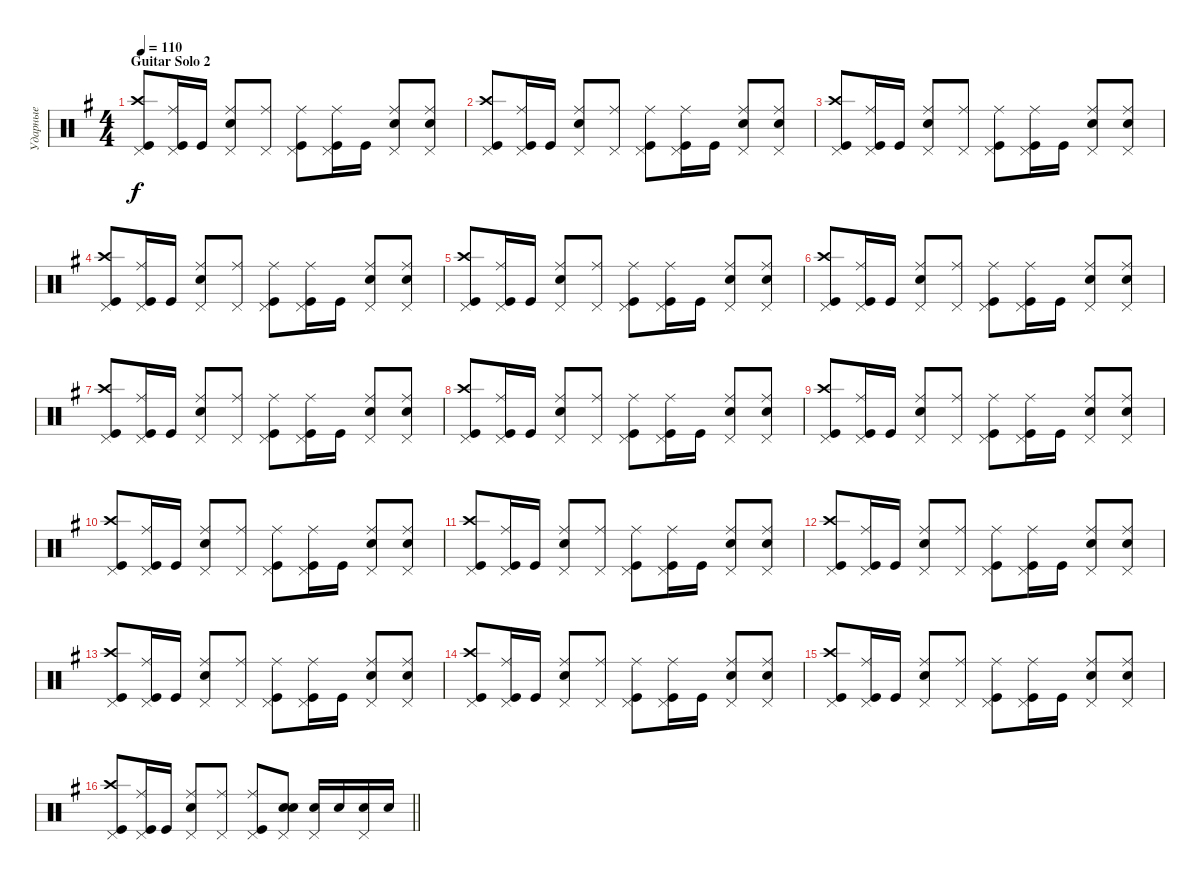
\track ("Ударные" "Ударные") {instrument percussion}
\staff {score}
\articulation defaults
\ts (4 4)
\section ("" "Guitar Solo 2")
\tempo 110
\clef neutral
\ks eminor
("Kick (hit)" "Crash high (hit)" "Pedal Hi-Hat (hit)").8{dy f} ("Kick (hit)" "Ride (middle)" "Pedal Hi-Hat (hit)").16 "Kick (hit)".16 ("Snare (hit) 2" "Ride (middle)" "Pedal Hi-Hat (hit)").8 ("Ride (middle)" "Pedal Hi-Hat (hit)").8 ("Kick (hit)" "Ride (middle)" "Pedal Hi-Hat (hit)").8 ("Kick (hit)" "Ride (middle)" "Pedal Hi-Hat (hit)").16 "Kick (hit)".16 ("Snare (hit) 2" "Ride (middle)" "Pedal Hi-Hat (hit)").8 ("Snare (hit) 2" "Ride (middle)" "Pedal Hi-Hat (hit)").8 |
("Kick (hit)" "Crash high (hit)" "Pedal Hi-Hat (hit)").8 ("Kick (hit)" "Ride (middle)" "Pedal Hi-Hat (hit)").16 "Kick (hit)".16 ("Snare (hit) 2" "Ride (middle)" "Pedal Hi-Hat (hit)").8 ("Ride (middle)" "Pedal Hi-Hat (hit)").8 ("Kick (hit)" "Ride (middle)" "Pedal Hi-Hat (hit)").8 ("Kick (hit)" "Ride (middle)" "Pedal Hi-Hat (hit)").16 "Kick (hit)".16 ("Snare (hit) 2" "Ride (middle)" "Pedal Hi-Hat (hit)").8 ("Snare (hit) 2" "Ride (middle)" "Pedal Hi-Hat (hit)").8 |
("Kick (hit)" "Crash high (hit)" "Pedal Hi-Hat (hit)").8 ("Kick (hit)" "Ride (middle)" "Pedal Hi-Hat (hit)").16 "Kick (hit)".16 ("Snare (hit) 2" "Ride (middle)" "Pedal Hi-Hat (hit)").8 ("Ride (middle)" "Pedal Hi-Hat (hit)").8 ("Kick (hit)" "Ride (middle)" "Pedal Hi-Hat (hit)").8 ("Kick (hit)" "Ride (middle)" "Pedal Hi-Hat (hit)").16 "Kick (hit)".16 ("Snare (hit) 2" "Ride (middle)" "Pedal Hi-Hat (hit)").8 ("Snare (hit) 2" "Ride (middle)" "Pedal Hi-Hat (hit)").8 |
("Kick (hit)" "Crash high (hit)" "Pedal Hi-Hat (hit)").8 ("Kick (hit)" "Ride (middle)" "Pedal Hi-Hat (hit)").16 "Kick (hit)".16 ("Snare (hit) 2" "Ride (middle)" "Pedal Hi-Hat (hit)").8 ("Ride (middle)" "Pedal Hi-Hat (hit)").8 ("Kick (hit)" "Ride (middle)" "Pedal Hi-Hat (hit)").8 ("Kick (hit)" "Ride (middle)" "Pedal Hi-Hat (hit)").16 "Kick (hit)".16 ("Snare (hit) 2" "Ride (middle)" "Pedal Hi-Hat (hit)").8 ("Snare (hit) 2" "Ride (middle)" "Pedal Hi-Hat (hit)").8 |
("Kick (hit)" "Crash high (hit)" "Pedal Hi-Hat (hit)").8 ("Kick (hit)" "Ride (middle)" "Pedal Hi-Hat (hit)").16 "Kick (hit)".16 ("Snare (hit) 2" "Ride (middle)" "Pedal Hi-Hat (hit)").8 ("Ride (middle)" "Pedal Hi-Hat (hit)").8 ("Kick (hit)" "Ride (middle)" "Pedal Hi-Hat (hit)").8 ("Kick (hit)" "Ride (middle)" "Pedal Hi-Hat (hit)").16 "Kick (hit)".16 ("Snare (hit) 2" "Ride (middle)" "Pedal Hi-Hat (hit)").8 ("Snare (hit) 2" "Ride (middle)" "Pedal Hi-Hat (hit)").8 |
("Kick (hit)" "Crash high (hit)" "Pedal Hi-Hat (hit)").8 ("Kick (hit)" "Ride (middle)" "Pedal Hi-Hat (hit)").16 "Kick (hit)".16 ("Snare (hit) 2" "Ride (middle)" "Pedal Hi-Hat (hit)").8 ("Ride (middle)" "Pedal Hi-Hat (hit)").8 ("Kick (hit)" "Ride (middle)" "Pedal Hi-Hat (hit)").8 ("Kick (hit)" "Ride (middle)" "Pedal Hi-Hat (hit)").16 "Kick (hit)".16 ("Snare (hit) 2" "Ride (middle)" "Pedal Hi-Hat (hit)").8 ("Snare (hit) 2" "Ride (middle)" "Pedal Hi-Hat (hit)").8 |
("Kick (hit)" "Crash high (hit)" "Pedal Hi-Hat (hit)").8 ("Kick (hit)" "Ride (middle)" "Pedal Hi-Hat (hit)").16 "Kick (hit)".16 ("Snare (hit) 2" "Ride (middle)" "Pedal Hi-Hat (hit)").8 ("Ride (middle)" "Pedal Hi-Hat (hit)").8 ("Kick (hit)" "Ride (middle)" "Pedal Hi-Hat (hit)").8 ("Kick (hit)" "Ride (middle)" "Pedal Hi-Hat (hit)").16 "Kick (hit)".16 ("Snare (hit) 2" "Ride (middle)" "Pedal Hi-Hat (hit)").8 ("Snare (hit) 2" "Ride (middle)" "Pedal Hi-Hat (hit)").8 |
("Kick (hit)" "Crash high (hit)" "Pedal Hi-Hat (hit)").8 ("Kick (hit)" "Ride (middle)" "Pedal Hi-Hat (hit)").16 "Kick (hit)".16 ("Snare (hit) 2" "Ride (middle)" "Pedal Hi-Hat (hit)").8 ("Ride (middle)" "Pedal Hi-Hat (hit)").8 ("Kick (hit)" "Ride (middle)" "Pedal Hi-Hat (hit)").8 ("Kick (hit)" "Ride (middle)" "Pedal Hi-Hat (hit)").16 "Kick (hit)".16 ("Snare (hit) 2" "Ride (middle)" "Pedal Hi-Hat (hit)").8 ("Snare (hit) 2" "Ride (middle)" "Pedal Hi-Hat (hit)").8 |
("Kick (hit)" "Crash high (hit)" "Pedal Hi-Hat (hit)").8 ("Kick (hit)" "Ride (middle)" "Pedal Hi-Hat (hit)").16 "Kick (hit)".16 ("Snare (hit) 2" "Ride (middle)" "Pedal Hi-Hat (hit)").8 ("Ride (middle)" "Pedal Hi-Hat (hit)").8 ("Kick (hit)" "Ride (middle)" "Pedal Hi-Hat (hit)").8 ("Kick (hit)" "Ride (middle)" "Pedal Hi-Hat (hit)").16 "Kick (hit)".16 ("Snare (hit) 2" "Ride (middle)" "Pedal Hi-Hat (hit)").8 ("Snare (hit) 2" "Ride (middle)" "Pedal Hi-Hat (hit)").8 |
("Kick (hit)" "Crash high (hit)" "Pedal Hi-Hat (hit)").8 ("Kick (hit)" "Ride (middle)" "Pedal Hi-Hat (hit)").16 "Kick (hit)".16 ("Snare (hit) 2" "Ride (middle)" "Pedal Hi-Hat (hit)").8 ("Ride (middle)" "Pedal Hi-Hat (hit)").8 ("Kick (hit)" "Ride (middle)" "Pedal Hi-Hat (hit)").8 ("Kick (hit)" "Ride (middle)" "Pedal Hi-Hat (hit)").16 "Kick (hit)".16 ("Snare (hit) 2" "Ride (middle)" "Pedal Hi-Hat (hit)").8 ("Snare (hit) 2" "Ride (middle)" "Pedal Hi-Hat (hit)").8 |
("Kick (hit)" "Crash high (hit)" "Pedal Hi-Hat (hit)").8 ("Kick (hit)" "Ride (middle)" "Pedal Hi-Hat (hit)").16 "Kick (hit)".16 ("Snare (hit) 2" "Ride (middle)" "Pedal Hi-Hat (hit)").8 ("Ride (middle)" "Pedal Hi-Hat (hit)").8 ("Kick (hit)" "Ride (middle)" "Pedal Hi-Hat (hit)").8 ("Kick (hit)" "Ride (middle)" "Pedal Hi-Hat (hit)").16 "Kick (hit)".16 ("Snare (hit) 2" "Ride (middle)" "Pedal Hi-Hat (hit)").8 ("Snare (hit) 2" "Ride (middle)" "Pedal Hi-Hat (hit)").8 |
("Kick (hit)" "Crash high (hit)" "Pedal Hi-Hat (hit)").8 ("Kick (hit)" "Ride (middle)" "Pedal Hi-Hat (hit)").16 "Kick (hit)".16 ("Snare (hit) 2" "Ride (middle)" "Pedal Hi-Hat (hit)").8 ("Ride (middle)" "Pedal Hi-Hat (hit)").8 ("Kick (hit)" "Ride (middle)" "Pedal Hi-Hat (hit)").8 ("Kick (hit)" "Ride (middle)" "Pedal Hi-Hat (hit)").16 "Kick (hit)".16 ("Snare (hit) 2" "Ride (middle)" "Pedal Hi-Hat (hit)").8 ("Snare (hit) 2" "Ride (middle)" "Pedal Hi-Hat (hit)").8 |
("Kick (hit)" "Crash high (hit)" "Pedal Hi-Hat (hit)").8 ("Kick (hit)" "Ride (middle)" "Pedal Hi-Hat (hit)").16 "Kick (hit)".16 ("Snare (hit) 2" "Ride (middle)" "Pedal Hi-Hat (hit)").8 ("Ride (middle)" "Pedal Hi-Hat (hit)").8 ("Kick (hit)" "Ride (middle)" "Pedal Hi-Hat (hit)").8 ("Kick (hit)" "Ride (middle)" "Pedal Hi-Hat (hit)").16 "Kick (hit)".16 ("Snare (hit) 2" "Ride (middle)" "Pedal Hi-Hat (hit)").8 ("Snare (hit) 2" "Ride (middle)" "Pedal Hi-Hat (hit)").8 |
("Kick (hit)" "Crash high (hit)" "Pedal Hi-Hat (hit)").8 ("Kick (hit)" "Ride (middle)" "Pedal Hi-Hat (hit)").16 "Kick (hit)".16 ("Snare (hit) 2" "Ride (middle)" "Pedal Hi-Hat (hit)").8 ("Ride (middle)" "Pedal Hi-Hat (hit)").8 ("Kick (hit)" "Ride (middle)" "Pedal Hi-Hat (hit)").8 ("Kick (hit)" "Ride (middle)" "Pedal Hi-Hat (hit)").16 "Kick (hit)".16 ("Snare (hit) 2" "Ride (middle)" "Pedal Hi-Hat (hit)").8 ("Snare (hit) 2" "Ride (middle)" "Pedal Hi-Hat (hit)").8 |
("Kick (hit)" "Crash high (hit)" "Pedal Hi-Hat (hit)").8 ("Kick (hit)" "Ride (middle)" "Pedal Hi-Hat (hit)").16 "Kick (hit)".16 ("Snare (hit) 2" "Ride (middle)" "Pedal Hi-Hat (hit)").8 ("Ride (middle)" "Pedal Hi-Hat (hit)").8 ("Kick (hit)" "Ride (middle)" "Pedal Hi-Hat (hit)").8 ("Kick (hit)" "Ride (middle)" "Pedal Hi-Hat (hit)").16 "Kick (hit)".16 ("Snare (hit) 2" "Ride (middle)" "Pedal Hi-Hat (hit)").8 ("Snare (hit) 2" "Ride (middle)" "Pedal Hi-Hat (hit)").8 |
\barLineRight lightlight
("Kick (hit)" "Crash high (hit)" "Pedal Hi-Hat (hit)").8 ("Kick (hit)" "Ride (middle)" "Pedal Hi-Hat (hit)").16 "Kick (hit)".16 ("Snare (hit) 2" "Ride (middle)" "Pedal Hi-Hat (hit)").8 ("Ride (middle)" "Pedal Hi-Hat (hit)").8 ("Kick (hit)" "Ride (middle)" "Pedal Hi-Hat (hit)").8 ("Snare (hit) 2" "Snare (hit) 2" "Pedal Hi-Hat (hit)").8{bd 240} ("Snare (hit) 2" "Pedal Hi-Hat (hit)").16 "Snare (hit) 2".16 ("Snare (hit) 2" "Pedal Hi-Hat (hit)").16 "Snare (hit) 2".16
